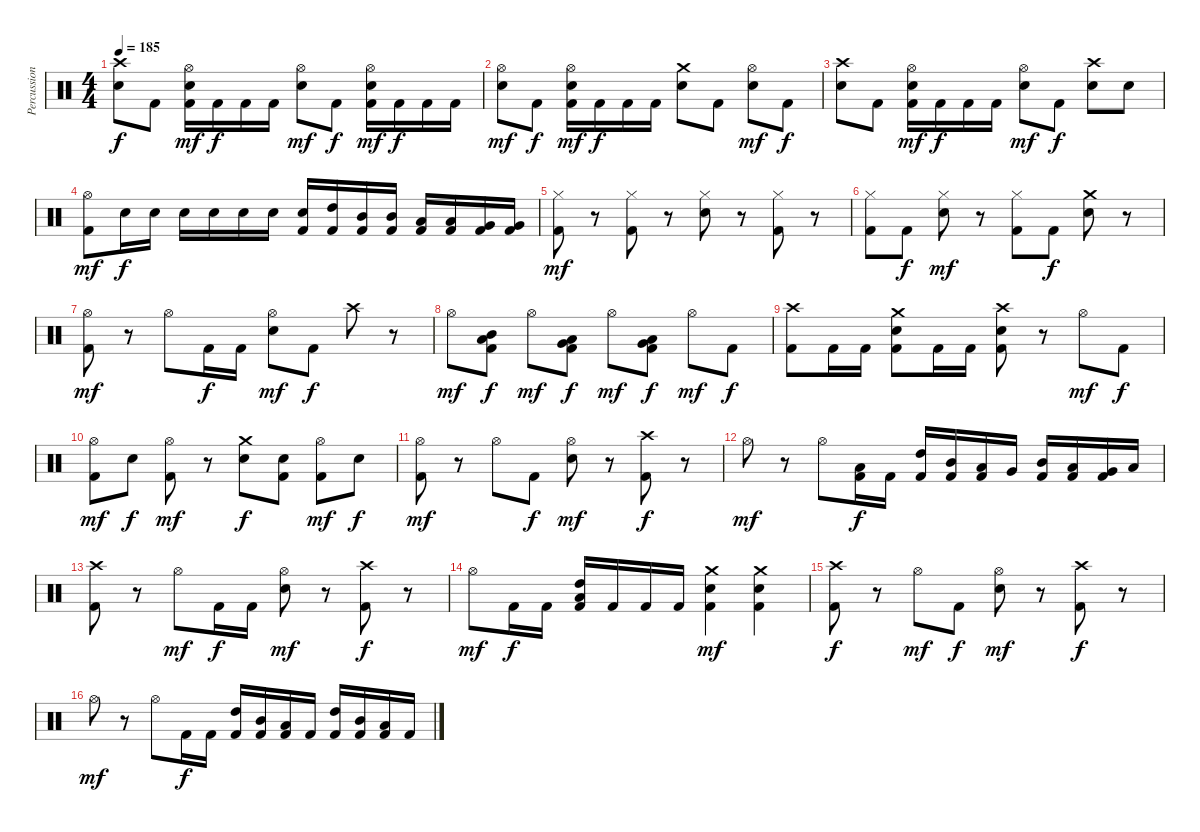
\track ("Percussion" "Percussion") {instrument percussion}
\staff {score}
\articulation defaults
\ts (4 4)
\tempo 185
\clef neutral
\ks c
("Crash high (hit)" "Electric Snare (hit)").8{dy f} "Kick (hit) 2".8 ("Hi-Hat (open)" "Electric Snare (hit)" "Kick (hit) 2").16{dy mf} "Kick (hit) 2".16{dy f} "Kick (hit) 2".16 "Kick (hit) 2".16 ("Hi-Hat (open)" "Electric Snare (hit)").8{dy mf} "Kick (hit) 2".8{dy f} ("Hi-Hat (open)" "Electric Snare (hit)" "Kick (hit) 2").16{dy mf} "Kick (hit) 2".16{dy f} "Kick (hit) 2".16 "Kick (hit) 2".16 |
("Hi-Hat (open)" "Electric Snare (hit)").8{dy mf} "Kick (hit) 2".8{dy f} ("Hi-Hat (open)" "Electric Snare (hit)" "Kick (hit) 2").16{dy mf} "Kick (hit) 2".16{dy f} "Kick (hit) 2".16 "Kick (hit) 2".16 ("Crash medium (hit)" "Electric Snare (hit)").8 "Kick (hit) 2".8 ("Hi-Hat (open)" "Electric Snare (hit)").8{dy mf} "Kick (hit) 2".8{dy f} |
("Crash high (hit)" "Electric Snare (hit)").8 "Kick (hit) 2".8 ("Hi-Hat (open)" "Electric Snare (hit)" "Kick (hit) 2").16{dy mf} "Kick (hit) 2".16{dy f} "Kick (hit) 2".16 "Kick (hit) 2".16 ("Hi-Hat (open)" "Electric Snare (hit)").8{dy mf} "Kick (hit) 2".8{dy f} ("Crash high (hit)" "Electric Snare (hit)").8 "Electric Snare (hit)".8 |
("Hi-Hat (open)" "Kick (hit) 2").8{dy mf} "Electric Snare (hit)".16{dy f} "Electric Snare (hit)".16 "Electric Snare (hit)".16 "Electric Snare (hit)".16 "Electric Snare (hit)".16 "Electric Snare (hit)".16 ("Electric Snare (hit)" "Kick (hit) 2").16 ("High Tom (hit)" "Kick (hit) 2").16 ("Mid Tom (hit)" "Kick (hit) 2").16 ("Mid Tom (hit)" "Kick (hit) 2").16 ("Low Tom (hit)" "Kick (hit) 2").16 ("Low Tom (hit)" "Kick (hit) 2").16 ("Very Low Tom (hit)" "Kick (hit) 2").16 ("Very Low Tom (hit)" "Kick (hit) 2").16 |
\section ("" "")
("Hi-Hat (closed)" "Kick (hit) 2").8{dy mf} r.8 ("Hi-Hat (closed)" "Kick (hit) 2").8 r.8 ("Hi-Hat (closed)" "Electric Snare (hit)").8 r.8 ("Hi-Hat (closed)" "Kick (hit) 2").8 r.8 |
("Hi-Hat (closed)" "Kick (hit) 2").8 "Kick (hit) 2".8{dy f} ("Hi-Hat (closed)" "Electric Snare (hit)").8{dy mf} r.8 ("Hi-Hat (closed)" "Kick (hit) 2").8 "Kick (hit) 2".8{dy f} ("Crash medium (hit)" "Electric Snare (hit)").8 r.8 |
("Hi-Hat (open)" "Kick (hit) 2").8{dy mf} r.8 "Hi-Hat (open)".8 "Kick (hit) 2".16{dy f} "Kick (hit) 2".16 ("Hi-Hat (open)" "Electric Snare (hit)").8{dy mf} "Kick (hit) 2".8{dy f} "Crash high (hit)".8 r.8 |
"Hi-Hat (open)".8{dy mf} ("Mid Tom (hit)" "Low Tom (hit)" "Kick (hit) 2").8{dy f} "Hi-Hat (open)".8{dy mf} ("Low Tom (hit)" "Very Low Tom (hit)" "Kick (hit) 2").8{dy f} "Hi-Hat (open)".8{dy mf} ("Very Low Tom (hit)" "Low Floor Tom (hit)" "Kick (hit) 2").8{dy f} "Hi-Hat (open)".8{dy mf} "Kick (hit) 2".8{dy f} |
("Crash high (hit)" "Kick (hit) 2").8 "Kick (hit) 2".16 "Kick (hit) 2".16 ("Crash medium (hit)" "Electric Snare (hit)" "Kick (hit) 2").8 "Kick (hit) 2".16 "Kick (hit) 2".16 ("Crash high (hit)" "Electric Snare (hit)" "Kick (hit) 2").8 r.8 "Hi-Hat (open)".8{dy mf} "Kick (hit) 2".8{dy f} |
("Hi-Hat (open)" "Kick (hit) 2").8{dy mf} "Electric Snare (hit)".8{dy f} ("Hi-Hat (open)" "Kick (hit) 2").8{dy mf} r.8 ("Crash medium (hit)" "Electric Snare (hit)").8{dy f} ("Electric Snare (hit)" "Kick (hit) 2").8 ("Hi-Hat (open)" "Kick (hit) 2").8{dy mf} "Electric Snare (hit)".8{dy f} |
("Hi-Hat (open)" "Kick (hit) 2").8{dy mf} r.8 "Hi-Hat (open)".8 "Kick (hit) 2".8{dy f} ("Hi-Hat (open)" "Electric Snare (hit)").8{dy mf} r.8 ("Crash high (hit)" "Kick (hit) 2").8{dy f} r.8 |
"Hi-Hat (open)".8{dy mf} r.8 "Hi-Hat (open)".8 ("Low Tom (hit)" "Kick (hit) 2").16{dy f} "Kick (hit) 2".16 ("High Tom (hit)" "Kick (hit) 2").16 ("Mid Tom (hit)" "Kick (hit) 2").16 ("Low Tom (hit)" "Kick (hit) 2").16 "Very Low Tom (hit)".16 ("Mid Tom (hit)" "Kick (hit) 2").16 ("Low Tom (hit)" "Kick (hit) 2").16 ("Very Low Tom (hit)" "Kick (hit) 2").16 "Low Floor Tom (hit)".16 |
\section ("" "")
("Crash high (hit)" "Kick (hit) 2").8 r.8 "Hi-Hat (open)".8{dy mf} "Kick (hit) 2".16{dy f} "Kick (hit) 2".16 ("Hi-Hat (open)" "Electric Snare (hit)").8{dy mf} r.8 ("Crash high (hit)" "Kick (hit) 2").8{dy f} r.8 |
"Hi-Hat (open)".8{dy mf} "Kick (hit) 2".16{dy f} "Kick (hit) 2".16 ("High Tom (hit)" "Low Tom (hit)" "Kick (hit) 2").16 "Kick (hit) 2".16 "Kick (hit) 2".16 "Kick (hit) 2".16 ("Crash medium (hit)" "Electric Snare (hit)" "Kick (hit) 2").4{dy mf} ("Crash medium (hit)" "Electric Snare (hit)" "Kick (hit) 2").4 |
("Crash high (hit)" "Kick (hit) 2").8{dy f} r.8 "Hi-Hat (open)".8{dy mf} "Kick (hit) 2".8{dy f} ("Hi-Hat (open)" "Electric Snare (hit)").8{dy mf} r.8 ("Crash high (hit)" "Kick (hit) 2").8{dy f} r.8 |
"Hi-Hat (open)".8{dy mf} r.8 "Hi-Hat (open)".8 "Kick (hit) 2".16{dy f} "Kick (hit) 2".16 ("High Tom (hit)" "Kick (hit) 2").16 ("Mid Tom (hit)" "Kick (hit) 2").16 ("Low Tom (hit)" "Kick (hit) 2").16 "Kick (hit) 2".16 ("High Tom (hit)" "Kick (hit) 2").16 ("Mid Tom (hit)" "Kick (hit) 2").16 ("Low Tom (hit)" "Kick (hit) 2").16 "Kick (hit) 2".16
